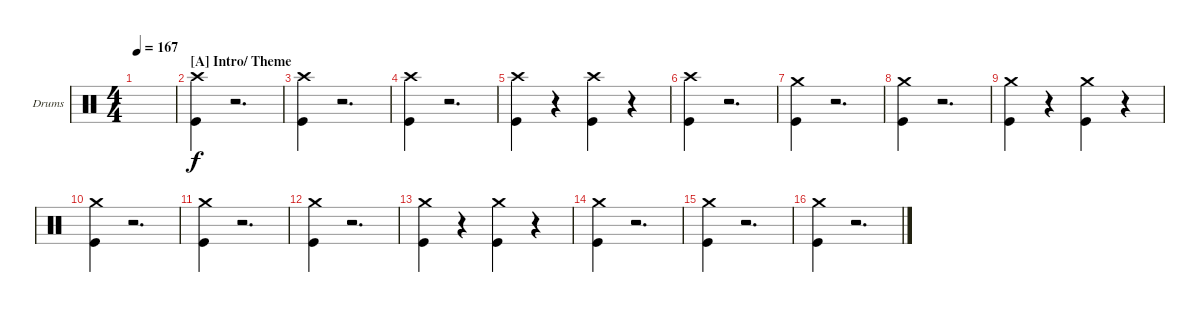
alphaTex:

\defaultSystemsLayout 4
\bracketExtendMode groupsimilarinstruments
\firstSystemTrackNameOrientation horizontal
\otherSystemsTrackNameOrientation horizontal
\track ("Drumkit" "Drums") {instrument percussion}
\staff {score}
\articulation defaults
\ts (4 4)
\tempo 167
\clef neutral
\scale
0.448819
\ks c
|
\section ("A" "Intro/ Theme")
\scale
0.275591 ("Kick (hit)" "Crash high (hit)").4 r.2{d} |
\scale
0.275591 ("Kick (hit)" "Crash high (hit)").4 r.2{d} |
\scale
0.333333 ("Kick (hit)" "Crash high (hit)").4 r.2{d} |
\scale
0.333333 ("Kick (hit)" "Crash high (hit)").4 r.4 ("Kick (hit)" "Crash high (hit)").4 r.4 |
\scale
0.333333 ("Kick (hit)" "Crash high (hit)").4 r.2{d} |
\scale
0.333333 ("Kick (hit)" "Crash medium (hit)").4 r.2{d} |
\scale
0.333333 ("Kick (hit)" "Crash medium (hit)").4 r.2{d} |
\scale
0.333333 ("Kick (hit)" "Crash medium (hit)").4 r.4 ("Kick (hit)" "Crash medium (hit)").4 r.4 |
\scale
0.333333 ("Kick (hit)" "Crash medium (hit)").4 r.2{d} |
\scale
0.333333 ("Kick (hit)" "Crash medium (hit)").4 r.2{d} |
\scale
0.333333 ("Kick (hit)" "Crash medium (hit)").4 r.2{d} |
\scale
0.333333 ("Kick (hit)" "Crash medium (hit)").4 r.4 ("Kick (hit)" "Crash medium (hit)").4 r.4 |
\scale
0.333333 ("Kick (hit)" "Crash medium (hit)").4 r.2{d} |
\scale
0.333333 ("Kick (hit)" "Crash medium (hit)").4 r.2{d} |
\scale
0.333333 ("Kick (hit)" "Crash medium (hit)").4 r.2{d}
